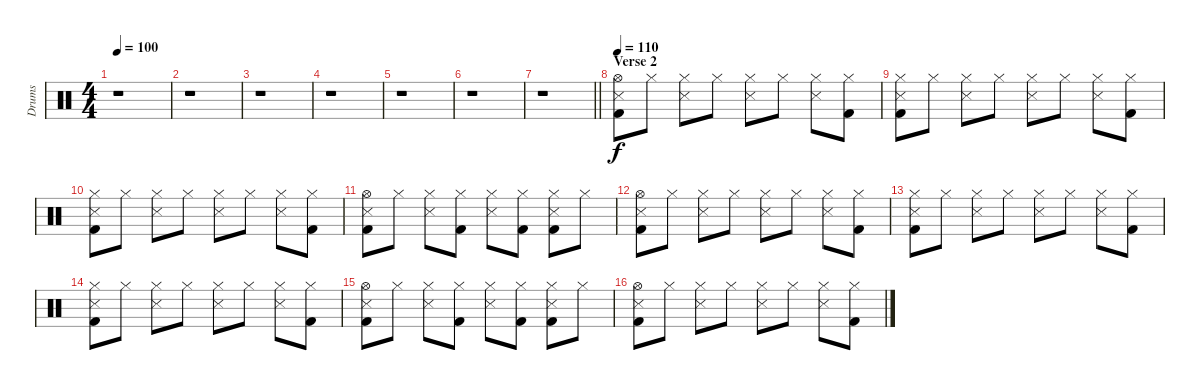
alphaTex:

\track ("Drums" "Drums") {instrument percussion}
\staff {score}
\articulation defaults
\ts (4 4)
\tempo 100
\clef neutral
\ks c
r.1{dy f} |
r.1 |
r.1 |
r.1 |
r.1 |
r.1 |
\barLineRight lightlight
r.1 |
\section ("" "Verse 2")
\tempo 110
("Hi-Hat (open)" "Snare (side stick) 3" "Kick (hit) 2").8 "Hi-Hat (closed)".8 ("Hi-Hat (closed)" "Snare (side stick) 3").8 "Hi-Hat (closed)".8 ("Hi-Hat (closed)" "Snare (side stick) 3").8 "Hi-Hat (closed)".8 ("Hi-Hat (closed)" "Snare (side stick) 3").8 ("Kick (hit) 2" "Hi-Hat (closed)").8 |
("Hi-Hat (closed)" "Snare (side stick) 3" "Kick (hit) 2").8 "Hi-Hat (closed)".8 ("Hi-Hat (closed)" "Snare (side stick) 3").8 "Hi-Hat (closed)".8 ("Hi-Hat (closed)" "Snare (side stick) 3").8 "Hi-Hat (closed)".8 ("Hi-Hat (closed)" "Snare (side stick) 3").8 ("Kick (hit) 2" "Hi-Hat (closed)").8 |
("Hi-Hat (closed)" "Snare (side stick) 3" "Kick (hit) 2").8 "Hi-Hat (closed)".8 ("Hi-Hat (closed)" "Snare (side stick) 3").8 "Hi-Hat (closed)".8 ("Hi-Hat (closed)" "Snare (side stick) 3").8 "Hi-Hat (closed)".8 ("Hi-Hat (closed)" "Snare (side stick) 3").8 ("Kick (hit) 2" "Hi-Hat (closed)").8 |
("Hi-Hat (open)" "Snare (side stick) 3" "Kick (hit) 2").8 "Hi-Hat (closed)".8 ("Hi-Hat (closed)" "Snare (side stick) 3").8 ("Kick (hit) 2" "Hi-Hat (closed)").8 ("Hi-Hat (closed)" "Snare (side stick) 3").8 ("Kick (hit) 2" "Hi-Hat (closed)").8 ("Kick (hit) 2" "Snare (side stick) 3" "Hi-Hat (closed)").8 "Hi-Hat (closed)".8 |
("Hi-Hat (open)" "Snare (side stick) 3" "Kick (hit) 2").8 "Hi-Hat (closed)".8 ("Hi-Hat (closed)" "Snare (side stick) 3").8 "Hi-Hat (closed)".8 ("Hi-Hat (closed)" "Snare (side stick) 3").8 "Hi-Hat (closed)".8 ("Hi-Hat (closed)" "Snare (side stick) 3").8 ("Kick (hit) 2" "Hi-Hat (closed)").8 |
("Hi-Hat (closed)" "Snare (side stick) 3" "Kick (hit) 2").8 "Hi-Hat (closed)".8 ("Hi-Hat (closed)" "Snare (side stick) 3").8 "Hi-Hat (closed)".8 ("Hi-Hat (closed)" "Snare (side stick) 3").8 "Hi-Hat (closed)".8 ("Hi-Hat (closed)" "Snare (side stick) 3").8 ("Kick (hit) 2" "Hi-Hat (closed)").8 |
("Hi-Hat (closed)" "Snare (side stick) 3" "Kick (hit) 2").8 "Hi-Hat (closed)".8 ("Hi-Hat (closed)" "Snare (side stick) 3").8 "Hi-Hat (closed)".8 ("Hi-Hat (closed)" "Snare (side stick) 3").8 "Hi-Hat (closed)".8 ("Hi-Hat (closed)" "Snare (side stick) 3").8 ("Kick (hit) 2" "Hi-Hat (closed)").8 |
("Hi-Hat (open)" "Snare (side stick) 3" "Kick (hit) 2").8 "Hi-Hat (closed)".8 ("Hi-Hat (closed)" "Snare (side stick) 3").8 ("Kick (hit) 2" "Hi-Hat (closed)").8 ("Hi-Hat (closed)" "Snare (side stick) 3").8 ("Kick (hit) 2" "Hi-Hat (closed)").8 ("Kick (hit) 2" "Snare (side stick) 3" "Hi-Hat (closed)").8 "Hi-Hat (closed)".8 |
("Hi-Hat (open)" "Snare (side stick) 3" "Kick (hit) 2").8 "Hi-Hat (closed)".8 ("Hi-Hat (closed)" "Snare (side stick) 3").8 "Hi-Hat (closed)".8 ("Hi-Hat (closed)" "Snare (side stick) 3").8 "Hi-Hat (closed)".8 ("Hi-Hat (closed)" "Snare (side stick) 3").8 ("Kick (hit) 2" "Hi-Hat (closed)").8
